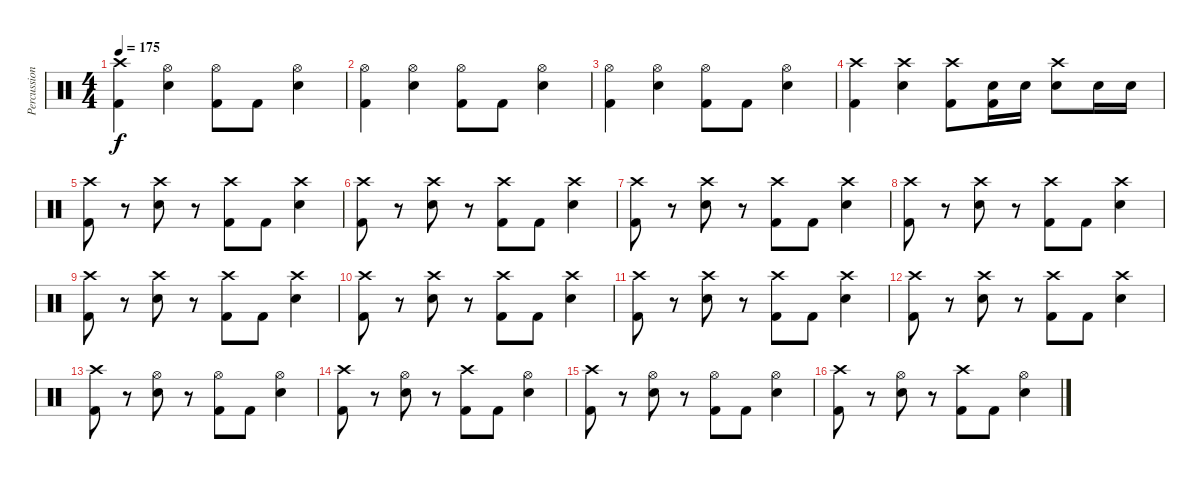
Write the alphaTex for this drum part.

\track ("Percussion" "Percussion") {instrument percussion}
\staff {score}
\articulation defaults
\ts (4 4)
\tempo 175
\clef neutral
\ks c
("Kick (hit) 2" "Crash high (hit)").4{dy f} ("Electric Snare (hit)" "Hi-Hat (open)").4 ("Kick (hit) 2" "Hi-Hat (open)").8 "Kick (hit) 2".8 ("Electric Snare (hit)" "Hi-Hat (open)").4 |
("Kick (hit) 2" "Hi-Hat (open)").4 ("Electric Snare (hit)" "Hi-Hat (open)").4 ("Kick (hit) 2" "Hi-Hat (open)").8 "Kick (hit) 2".8 ("Electric Snare (hit)" "Hi-Hat (open)").4 |
("Kick (hit) 2" "Hi-Hat (open)").4 ("Electric Snare (hit)" "Hi-Hat (open)").4 ("Kick (hit) 2" "Hi-Hat (open)").8 "Kick (hit) 2".8 ("Electric Snare (hit)" "Hi-Hat (open)").4 |
("Kick (hit) 2" "Crash high (hit)").4 ("Electric Snare (hit)" "Crash high (hit)").4 ("Kick (hit) 2" "Crash high (hit)").8 ("Kick (hit) 2" "Electric Snare (hit)").16 "Electric Snare (hit)".16 ("Electric Snare (hit)" "Crash high (hit)").8 "Electric Snare (hit)".16 "Electric Snare (hit)".16 |
("Kick (hit) 2" "Crash high (hit)").8 r.8 ("Electric Snare (hit)" "Crash high (hit)").8 r.8 ("Kick (hit) 2" "Crash high (hit)").8 "Kick (hit) 2".8 ("Electric Snare (hit)" "Crash high (hit)").4 |
("Kick (hit) 2" "Crash high (hit)").8 r.8 ("Electric Snare (hit)" "Crash high (hit)").8 r.8 ("Kick (hit) 2" "Crash high (hit)").8 "Kick (hit) 2".8 ("Electric Snare (hit)" "Crash high (hit)").4 |
("Kick (hit) 2" "Crash high (hit)").8 r.8 ("Electric Snare (hit)" "Crash high (hit)").8 r.8 ("Kick (hit) 2" "Crash high (hit)").8 "Kick (hit) 2".8 ("Electric Snare (hit)" "Crash high (hit)").4 |
("Kick (hit) 2" "Crash high (hit)").8 r.8 ("Electric Snare (hit)" "Crash high (hit)").8 r.8 ("Kick (hit) 2" "Crash high (hit)").8 "Kick (hit) 2".8 ("Electric Snare (hit)" "Crash high (hit)").4 |
("Kick (hit) 2" "Crash high (hit)").8 r.8 ("Electric Snare (hit)" "Crash high (hit)").8 r.8 ("Kick (hit) 2" "Crash high (hit)").8 "Kick (hit) 2".8 ("Electric Snare (hit)" "Crash high (hit)").4 |
("Kick (hit) 2" "Crash high (hit)").8 r.8 ("Electric Snare (hit)" "Crash high (hit)").8 r.8 ("Kick (hit) 2" "Crash high (hit)").8 "Kick (hit) 2".8 ("Electric Snare (hit)" "Crash high (hit)").4 |
("Kick (hit) 2" "Crash high (hit)").8 r.8 ("Electric Snare (hit)" "Crash high (hit)").8 r.8 ("Kick (hit) 2" "Crash high (hit)").8 "Kick (hit) 2".8 ("Electric Snare (hit)" "Crash high (hit)").4 |
("Kick (hit) 2" "Crash high (hit)").8 r.8 ("Electric Snare (hit)" "Crash high (hit)").8 r.8 ("Kick (hit) 2" "Crash high (hit)").8 "Kick (hit) 2".8 ("Electric Snare (hit)" "Crash high (hit)").4 |
("Kick (hit) 2" "Crash high (hit)").8 r.8 ("Electric Snare (hit)" "Hi-Hat (open)").8 r.8 ("Kick (hit) 2" "Hi-Hat (open)").8 "Kick (hit) 2".8 ("Electric Snare (hit)" "Hi-Hat (open)").4 |
("Kick (hit) 2" "Crash high (hit)").8 r.8 ("Electric Snare (hit)" "Hi-Hat (open)").8 r.8 ("Kick (hit) 2" "Crash high (hit)").8 "Kick (hit) 2".8 ("Electric Snare (hit)" "Hi-Hat (open)").4 |
("Kick (hit) 2" "Crash high (hit)").8 r.8 ("Electric Snare (hit)" "Hi-Hat (open)").8 r.8 ("Kick (hit) 2" "Hi-Hat (open)").8 "Kick (hit) 2".8 ("Electric Snare (hit)" "Hi-Hat (open)").4 |
("Kick (hit) 2" "Crash high (hit)").8 r.8 ("Electric Snare (hit)" "Hi-Hat (open)").8 r.8 ("Kick (hit) 2" "Crash high (hit)").8 "Kick (hit) 2".8 ("Electric Snare (hit)" "Hi-Hat (open)").4
